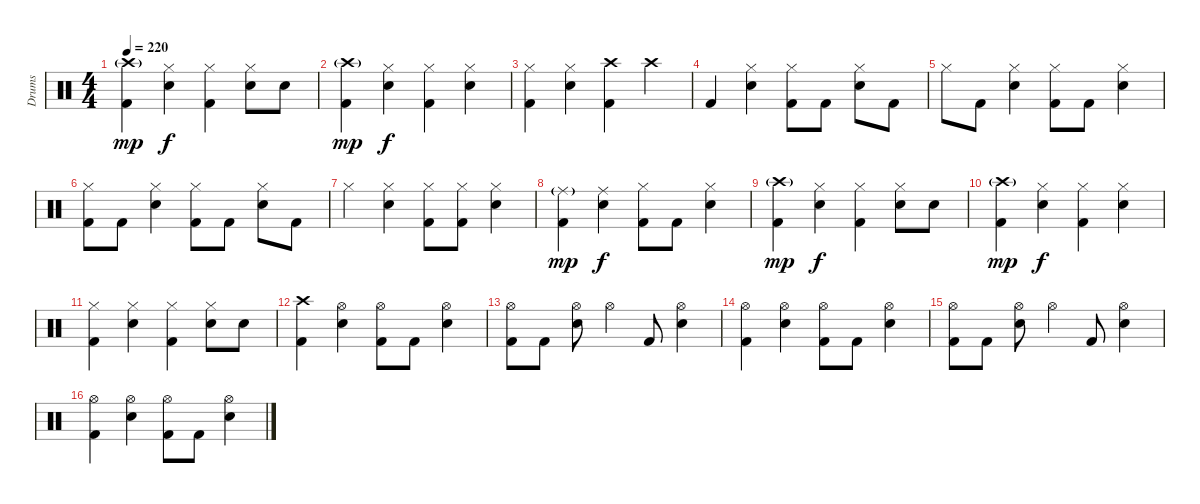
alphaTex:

\track ("Drums" "Drums") {instrument percussion}
\staff {score}
\articulation defaults
\ts (4 4)
\tempo 220
\clef neutral
\ks c
("Crash high (hit)"{g} "Kick (hit) 2").4{dy mp} ("Hi-Hat (closed)" "Snare (hit) 2").4{dy f} ("Hi-Hat (closed)" "Kick (hit) 2").4 ("Hi-Hat (closed)" "Snare (hit) 2").8 "Snare (hit) 2".8 |
("Crash high (hit)"{g} "Kick (hit) 2").4{dy mp} ("Hi-Hat (closed)" "Snare (hit) 2").4{dy f} ("Hi-Hat (closed)" "Kick (hit) 2").4 ("Hi-Hat (closed)" "Snare (hit) 2").4 |
("Hi-Hat (closed)" "Kick (hit) 2").4 ("Hi-Hat (closed)" "Snare (hit) 2").4 ("Crash high (hit)" "Kick (hit) 2").4 "Crash high (hit)".4 |
"Kick (hit) 2".4 ("Hi-Hat (closed)" "Snare (hit) 2").4 ("Hi-Hat (closed)" "Kick (hit) 2").8 "Kick (hit) 2".8 ("Hi-Hat (closed)" "Snare (hit) 2").8 "Kick (hit) 2".8 |
"Hi-Hat (closed)".8 "Kick (hit) 2".8 ("Hi-Hat (closed)" "Snare (hit) 2").4 ("Hi-Hat (closed)" "Kick (hit) 2").8 "Kick (hit) 2".8 ("Hi-Hat (closed)" "Snare (hit) 2").4 |
("Hi-Hat (closed)" "Kick (hit) 2").8 "Kick (hit) 2".8 ("Hi-Hat (closed)" "Snare (hit) 2").4 ("Hi-Hat (closed)" "Kick (hit) 2").8 "Kick (hit) 2".8 ("Hi-Hat (closed)" "Snare (hit) 2").8 "Kick (hit) 2".8 |
"Hi-Hat (closed)".4 ("Hi-Hat (closed)" "Snare (hit) 2").4 ("Hi-Hat (closed)" "Kick (hit) 2").8 ("Hi-Hat (closed)" "Kick (hit) 2").8 ("Hi-Hat (closed)" "Snare (hit) 2").4 |
("Ride (middle)"{g} "Kick (hit) 2").4{dy mp} ("Ride (middle)" "Snare (hit) 2").4{dy f} ("Hi-Hat (closed)" "Kick (hit) 2").8 "Kick (hit) 2".8 ("Hi-Hat (closed)" "Snare (hit) 2").4 |
("Crash high (hit)"{g} "Kick (hit) 2").4{dy mp} ("Hi-Hat (closed)" "Snare (hit) 2").4{dy f} ("Hi-Hat (closed)" "Kick (hit) 2").4 ("Hi-Hat (closed)" "Snare (hit) 2").8 "Snare (hit) 2".8 |
("Crash high (hit)"{g} "Kick (hit) 2").4{dy mp} ("Hi-Hat (closed)" "Snare (hit) 2").4{dy f} ("Hi-Hat (closed)" "Kick (hit) 2").4 ("Hi-Hat (closed)" "Snare (hit) 2").4 |
("Hi-Hat (closed)" "Kick (hit) 2").4 ("Hi-Hat (closed)" "Snare (hit) 2").4 ("Hi-Hat (closed)" "Kick (hit) 2").4 ("Hi-Hat (closed)" "Snare (hit) 2").8 "Snare (hit) 2".8 |
("Crash high (hit)" "Kick (hit) 2").4 ("Hi-Hat (open)" "Snare (hit) 2").4 ("Hi-Hat (open)" "Kick (hit) 2").8 "Kick (hit) 2".8 ("Hi-Hat (open)" "Snare (hit) 2").4 |
("Hi-Hat (open)" "Kick (hit) 2").8 "Kick (hit) 2".8 ("Hi-Hat (open)" "Snare (hit) 2").8 "Hi-Hat (open)".4 "Kick (hit) 2".8 ("Hi-Hat (open)" "Snare (hit) 2").4 |
("Hi-Hat (open)" "Kick (hit) 2").4 ("Hi-Hat (open)" "Snare (hit) 2").4 ("Hi-Hat (open)" "Kick (hit) 2").8 "Kick (hit) 2".8 ("Hi-Hat (open)" "Snare (hit) 2").4 |
("Hi-Hat (open)" "Kick (hit) 2").8 "Kick (hit) 2".8 ("Hi-Hat (open)" "Snare (hit) 2").8 "Hi-Hat (open)".4 "Kick (hit) 2".8 ("Hi-Hat (open)" "Snare (hit) 2").4 |
("Hi-Hat (open)" "Kick (hit) 2").4 ("Hi-Hat (open)" "Snare (hit) 2").4 ("Hi-Hat (open)" "Kick (hit) 2").8 "Kick (hit) 2".8 ("Hi-Hat (open)" "Snare (hit) 2").4
